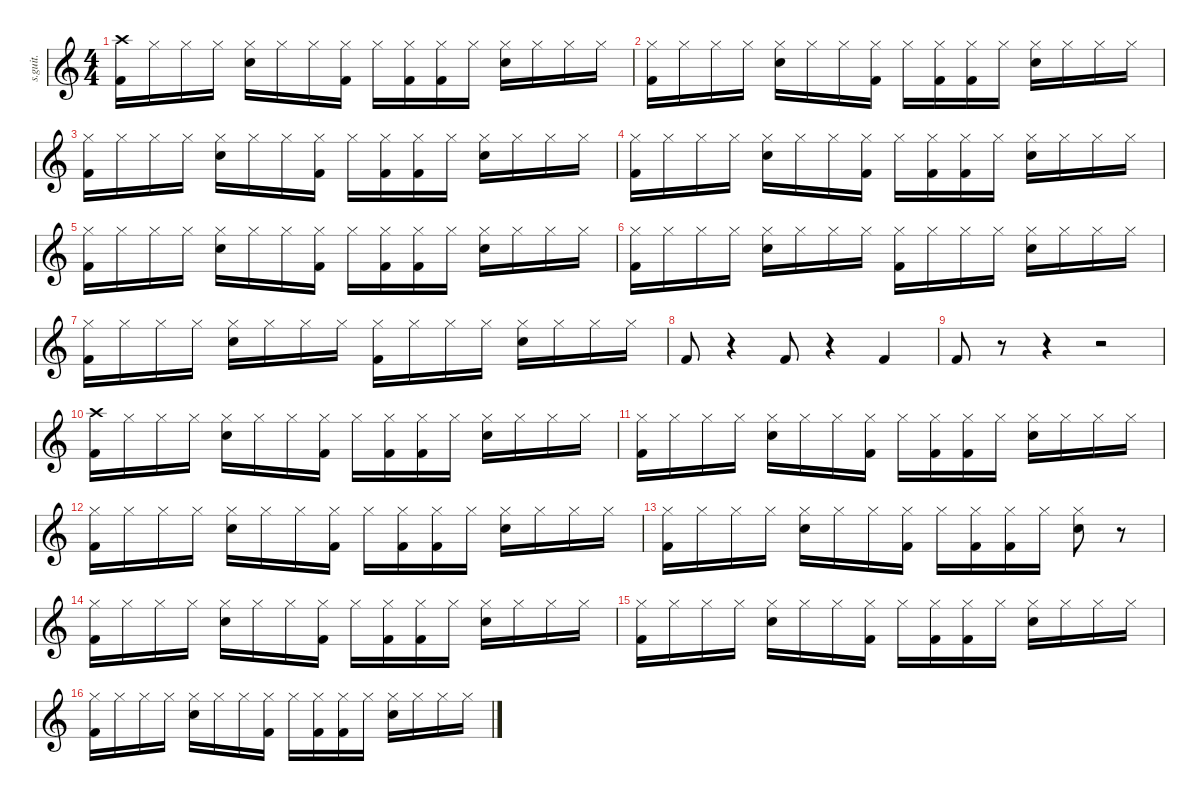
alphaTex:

\defaultSystemsLayout 4
\hideDynamics
\bracketExtendMode nobrackets
\track ("Drums" "s.guit.") {instrument percussion}
\staff {score}
\articulation defaults
\ts (4 4)
\tempo (100 hide)
\clef g2
\ks c
("Crash high (hit)" "Kick (hit) 2").16{dy f} "Hi-Hat (closed)".16 "Hi-Hat (closed)".16 "Hi-Hat (closed)".16 ("Hi-Hat (closed)" "Electric Snare (hit)").16 "Hi-Hat (closed)".16 "Hi-Hat (closed)".16 ("Hi-Hat (closed)" "Kick (hit) 2").16 "Hi-Hat (closed)".16 ("Hi-Hat (closed)" "Kick (hit) 2").16 ("Hi-Hat (closed)" "Kick (hit) 2").16 "Hi-Hat (closed)".16 ("Hi-Hat (closed)" "Electric Snare (hit)").16 "Hi-Hat (closed)".16 "Hi-Hat (closed)".16 "Hi-Hat (closed)".16 |
("Hi-Hat (closed)" "Kick (hit) 2").16 "Hi-Hat (closed)".16 "Hi-Hat (closed)".16 "Hi-Hat (closed)".16 ("Hi-Hat (closed)" "Electric Snare (hit)").16 "Hi-Hat (closed)".16 "Hi-Hat (closed)".16 ("Hi-Hat (closed)" "Kick (hit) 2").16 "Hi-Hat (closed)".16 ("Hi-Hat (closed)" "Kick (hit) 2").16 ("Hi-Hat (closed)" "Kick (hit) 2").16 "Hi-Hat (closed)".16 ("Hi-Hat (closed)" "Electric Snare (hit)").16 "Hi-Hat (closed)".16 "Hi-Hat (closed)".16 "Hi-Hat (closed)".16 |
("Hi-Hat (closed)" "Kick (hit) 2").16 "Hi-Hat (closed)".16 "Hi-Hat (closed)".16 "Hi-Hat (closed)".16 ("Hi-Hat (closed)" "Electric Snare (hit)").16 "Hi-Hat (closed)".16 "Hi-Hat (closed)".16 ("Hi-Hat (closed)" "Kick (hit) 2").16 "Hi-Hat (closed)".16 ("Hi-Hat (closed)" "Kick (hit) 2").16 ("Hi-Hat (closed)" "Kick (hit) 2").16 "Hi-Hat (closed)".16 ("Hi-Hat (closed)" "Electric Snare (hit)").16 "Hi-Hat (closed)".16 "Hi-Hat (closed)".16 "Hi-Hat (closed)".16 |
("Hi-Hat (closed)" "Kick (hit) 2").16 "Hi-Hat (closed)".16 "Hi-Hat (closed)".16 "Hi-Hat (closed)".16 ("Hi-Hat (closed)" "Electric Snare (hit)").16 "Hi-Hat (closed)".16 "Hi-Hat (closed)".16 ("Hi-Hat (closed)" "Kick (hit) 2").16 "Hi-Hat (closed)".16 ("Hi-Hat (closed)" "Kick (hit) 2").16 ("Hi-Hat (closed)" "Kick (hit) 2").16 "Hi-Hat (closed)".16 ("Hi-Hat (closed)" "Electric Snare (hit)").16 "Hi-Hat (closed)".16 "Hi-Hat (closed)".16 "Hi-Hat (closed)".16 |
("Hi-Hat (closed)" "Kick (hit) 2").16 "Hi-Hat (closed)".16 "Hi-Hat (closed)".16 "Hi-Hat (closed)".16 ("Hi-Hat (closed)" "Electric Snare (hit)").16 "Hi-Hat (closed)".16 "Hi-Hat (closed)".16 ("Hi-Hat (closed)" "Kick (hit) 2").16 "Hi-Hat (closed)".16 ("Hi-Hat (closed)" "Kick (hit) 2").16 ("Hi-Hat (closed)" "Kick (hit) 2").16 "Hi-Hat (closed)".16 ("Hi-Hat (closed)" "Electric Snare (hit)").16 "Hi-Hat (closed)".16 "Hi-Hat (closed)".16 "Hi-Hat (closed)".16 |
("Hi-Hat (closed)" "Kick (hit) 2").16 "Hi-Hat (closed)".16 "Hi-Hat (closed)".16 "Hi-Hat (closed)".16 ("Hi-Hat (closed)" "Electric Snare (hit)").16 "Hi-Hat (closed)".16 "Hi-Hat (closed)".16 "Hi-Hat (closed)".16 ("Kick (hit) 2" "Hi-Hat (closed)").16 "Hi-Hat (closed)".16 "Hi-Hat (closed)".16 "Hi-Hat (closed)".16 ("Hi-Hat (closed)" "Electric Snare (hit)").16 "Hi-Hat (closed)".16 "Hi-Hat (closed)".16 "Hi-Hat (closed)".16 |
("Hi-Hat (closed)" "Kick (hit) 2").16 "Hi-Hat (closed)".16 "Hi-Hat (closed)".16 "Hi-Hat (closed)".16 ("Hi-Hat (closed)" "Electric Snare (hit)").16 "Hi-Hat (closed)".16 "Hi-Hat (closed)".16 "Hi-Hat (closed)".16 ("Kick (hit) 2" "Hi-Hat (closed)").16 "Hi-Hat (closed)".16 "Hi-Hat (closed)".16 "Hi-Hat (closed)".16 ("Hi-Hat (closed)" "Electric Snare (hit)").16 "Hi-Hat (closed)".16 "Hi-Hat (closed)".16 "Hi-Hat (closed)".16 |
"Kick (hit) 2".8 r.4 "Kick (hit) 2".8 r.4 "Kick (hit) 2".4 |
"Kick (hit) 2".8 r.8 r.4 r.2 |
("Crash high (hit)" "Kick (hit) 2").16 "Hi-Hat (closed)".16 "Hi-Hat (closed)".16 "Hi-Hat (closed)".16 ("Hi-Hat (closed)" "Electric Snare (hit)").16 "Hi-Hat (closed)".16 "Hi-Hat (closed)".16 ("Hi-Hat (closed)" "Kick (hit) 2").16 "Hi-Hat (closed)".16 ("Hi-Hat (closed)" "Kick (hit) 2").16 ("Hi-Hat (closed)" "Kick (hit) 2").16 "Hi-Hat (closed)".16 ("Hi-Hat (closed)" "Electric Snare (hit)").16 "Hi-Hat (closed)".16 "Hi-Hat (closed)".16 "Hi-Hat (closed)".16 |
("Hi-Hat (closed)" "Kick (hit) 2").16 "Hi-Hat (closed)".16 "Hi-Hat (closed)".16 "Hi-Hat (closed)".16 ("Hi-Hat (closed)" "Electric Snare (hit)").16 "Hi-Hat (closed)".16 "Hi-Hat (closed)".16 ("Hi-Hat (closed)" "Kick (hit) 2").16 "Hi-Hat (closed)".16 ("Hi-Hat (closed)" "Kick (hit) 2").16 ("Hi-Hat (closed)" "Kick (hit) 2").16 "Hi-Hat (closed)".16 ("Hi-Hat (closed)" "Electric Snare (hit)").16 "Hi-Hat (closed)".16 "Hi-Hat (closed)".16 "Hi-Hat (closed)".16 |
("Hi-Hat (closed)" "Kick (hit) 2").16 "Hi-Hat (closed)".16 "Hi-Hat (closed)".16 "Hi-Hat (closed)".16 ("Hi-Hat (closed)" "Electric Snare (hit)").16 "Hi-Hat (closed)".16 "Hi-Hat (closed)".16 ("Hi-Hat (closed)" "Kick (hit) 2").16 "Hi-Hat (closed)".16 ("Hi-Hat (closed)" "Kick (hit) 2").16 ("Hi-Hat (closed)" "Kick (hit) 2").16 "Hi-Hat (closed)".16 ("Hi-Hat (closed)" "Electric Snare (hit)").16 "Hi-Hat (closed)".16 "Hi-Hat (closed)".16 "Hi-Hat (closed)".16 |
("Hi-Hat (closed)" "Kick (hit) 2").16 "Hi-Hat (closed)".16 "Hi-Hat (closed)".16 "Hi-Hat (closed)".16 ("Hi-Hat (closed)" "Electric Snare (hit)").16 "Hi-Hat (closed)".16 "Hi-Hat (closed)".16 ("Hi-Hat (closed)" "Kick (hit) 2").16 "Hi-Hat (closed)".16 ("Hi-Hat (closed)" "Kick (hit) 2").16 ("Hi-Hat (closed)" "Kick (hit) 2").16 "Hi-Hat (closed)".16 ("Hi-Hat (closed)" "Electric Snare (hit)").8 r.8 |
("Hi-Hat (closed)" "Kick (hit) 2").16 "Hi-Hat (closed)".16 "Hi-Hat (closed)".16 "Hi-Hat (closed)".16 ("Hi-Hat (closed)" "Electric Snare (hit)").16 "Hi-Hat (closed)".16 "Hi-Hat (closed)".16 ("Hi-Hat (closed)" "Kick (hit) 2").16 "Hi-Hat (closed)".16 ("Hi-Hat (closed)" "Kick (hit) 2").16 ("Hi-Hat (closed)" "Kick (hit) 2").16 "Hi-Hat (closed)".16 ("Hi-Hat (closed)" "Electric Snare (hit)").16 "Hi-Hat (closed)".16 "Hi-Hat (closed)".16 "Hi-Hat (closed)".16 |
("Hi-Hat (closed)" "Kick (hit) 2").16 "Hi-Hat (closed)".16 "Hi-Hat (closed)".16 "Hi-Hat (closed)".16 ("Hi-Hat (closed)" "Electric Snare (hit)").16 "Hi-Hat (closed)".16 "Hi-Hat (closed)".16 ("Hi-Hat (closed)" "Kick (hit) 2").16 "Hi-Hat (closed)".16 ("Hi-Hat (closed)" "Kick (hit) 2").16 ("Hi-Hat (closed)" "Kick (hit) 2").16 "Hi-Hat (closed)".16 ("Hi-Hat (closed)" "Electric Snare (hit)").16 "Hi-Hat (closed)".16 "Hi-Hat (closed)".16 "Hi-Hat (closed)".16 |
("Hi-Hat (closed)" "Kick (hit) 2").16 "Hi-Hat (closed)".16 "Hi-Hat (closed)".16 "Hi-Hat (closed)".16 ("Hi-Hat (closed)" "Electric Snare (hit)").16 "Hi-Hat (closed)".16 "Hi-Hat (closed)".16 ("Hi-Hat (closed)" "Kick (hit) 2").16 "Hi-Hat (closed)".16 ("Hi-Hat (closed)" "Kick (hit) 2").16 ("Hi-Hat (closed)" "Kick (hit) 2").16 "Hi-Hat (closed)".16 ("Hi-Hat (closed)" "Electric Snare (hit)").16 "Hi-Hat (closed)".16 "Hi-Hat (closed)".16 "Hi-Hat (closed)".16
